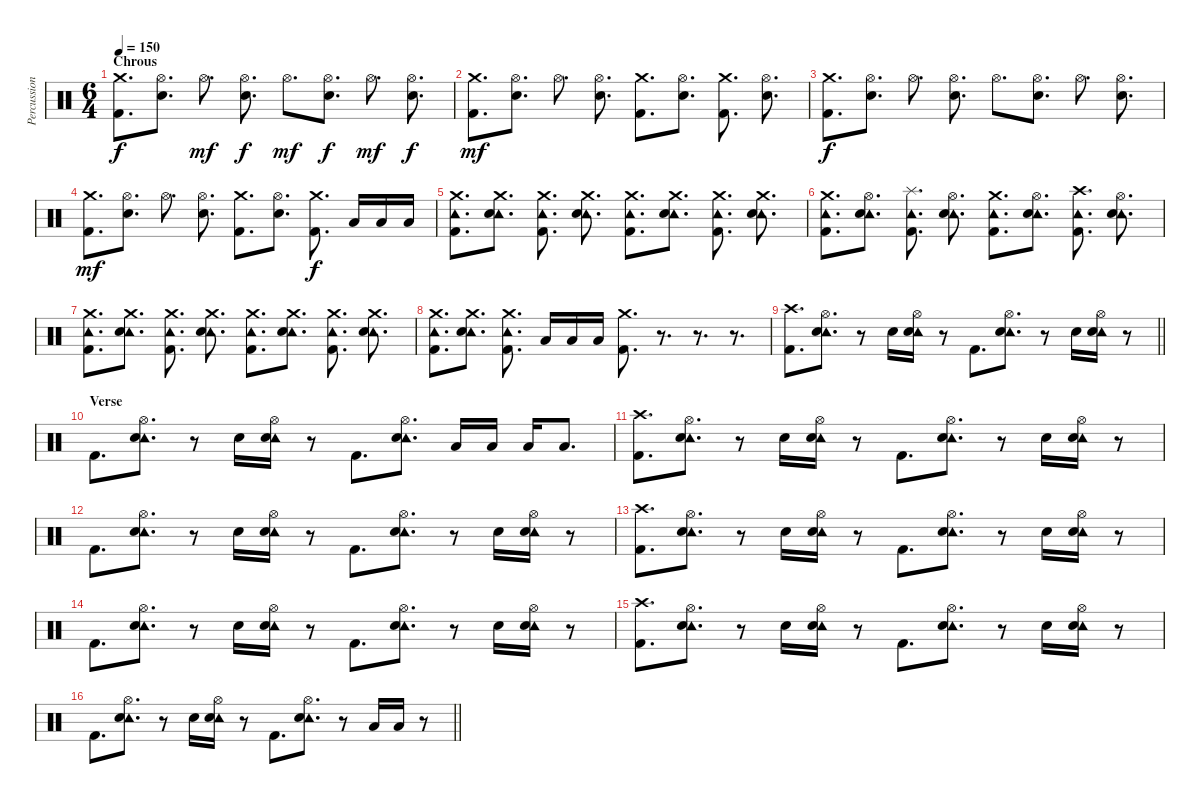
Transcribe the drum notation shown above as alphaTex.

\track ("Percussion" "Percussion") {solo instrument percussion}
\staff {score}
\articulation defaults
\ts (6 4)
\section ("" "Chrous")
\tempo 150
\clef neutral
\ks c
("Crash medium (hit)" "Kick (hit) 2").8{d dy f} ("Hi-Hat (open)" "Electric Snare (hit)").8{d} "Hi-Hat (open)".8{d dy mf} ("Hi-Hat (open)" "Electric Snare (hit)").8{d dy f} "Hi-Hat (open)".8{d dy mf} ("Hi-Hat (open)" "Electric Snare (hit)").8{d dy f} "Hi-Hat (open)".8{d dy mf} ("Hi-Hat (open)" "Electric Snare (hit)").8{d dy f} |
("Crash medium (hit)" "Kick (hit) 2").8{d dy mf} ("Hi-Hat (open)" "Electric Snare (hit)").8{d} "Hi-Hat (open)".8{d} ("Hi-Hat (open)" "Electric Snare (hit)").8{d} ("Crash medium (hit)" "Kick (hit) 2").8{d} ("Hi-Hat (open)" "Electric Snare (hit)").8{d} ("Crash medium (hit)" "Kick (hit) 2").8{d} ("Hi-Hat (open)" "Electric Snare (hit)").8{d} |
("Crash medium (hit)" "Kick (hit) 2").8{d dy f} ("Hi-Hat (open)" "Electric Snare (hit)").8{d} "Hi-Hat (open)".8{d} ("Hi-Hat (open)" "Electric Snare (hit)").8{d} "Hi-Hat (open)".8{d} ("Hi-Hat (open)" "Electric Snare (hit)").8{d} "Hi-Hat (open)".8{d} ("Hi-Hat (open)" "Electric Snare (hit)").8{d} |
("Crash medium (hit)" "Kick (hit) 2").8{d dy mf} ("Hi-Hat (open)" "Electric Snare (hit)").8{d} "Hi-Hat (open)".8{d} ("Hi-Hat (open)" "Electric Snare (hit)").8{d} ("Crash medium (hit)" "Kick (hit) 2").8{d} ("Hi-Hat (open)" "Electric Snare (hit)").8{d} ("Crash medium (hit)" "Kick (hit) 2").8{d dy f} "Low Tom (hit)".16 "Low Tom (hit)".16 "Low Floor Tom (hit)".16 |
("Tambourine (hit)" "Crash medium (hit)" "Kick (hit) 2").8{d} ("Tambourine (hit)" "Crash medium (hit)" "Electric Snare (hit)").8{d} ("Tambourine (hit)" "Crash medium (hit)" "Kick (hit) 2").8{d} ("Tambourine (hit)" "Crash medium (hit)" "Electric Snare (hit)").8{d} ("Tambourine (hit)" "Crash medium (hit)" "Kick (hit) 2").8{d} ("Tambourine (hit)" "Crash medium (hit)" "Electric Snare (hit)").8{d} ("Tambourine (hit)" "Crash medium (hit)" "Kick (hit) 2").8{d} ("Tambourine (hit)" "Crash medium (hit)" "Electric Snare (hit)").8{d} |
("Tambourine (hit)" "Crash medium (hit)" "Kick (hit) 2").8{d} ("Tambourine (hit)" "Hi-Hat (open)" "Electric Snare (hit)").8{d} ("Tambourine (hit)" "Splash (hit)" "Kick (hit) 2").8{d} ("Tambourine (hit)" "Hi-Hat (open)" "Electric Snare (hit)").8{d} ("Tambourine (hit)" "Crash medium (hit)" "Kick (hit) 2").8{d} ("Tambourine (hit)" "Hi-Hat (open)" "Electric Snare (hit)").8{d} ("Tambourine (hit)" "Crash high (hit)" "Kick (hit) 2").8{d} ("Tambourine (hit)" "Hi-Hat (open)" "Electric Snare (hit)").8{d} |
("Tambourine (hit)" "Crash medium (hit)" "Kick (hit) 2").8{d} ("Tambourine (hit)" "Crash medium (hit)" "Electric Snare (hit)").8{d} ("Tambourine (hit)" "Crash medium (hit)" "Kick (hit) 2").8{d} ("Tambourine (hit)" "Crash medium (hit)" "Electric Snare (hit)").8{d} ("Tambourine (hit)" "Crash medium (hit)" "Kick (hit) 2").8{d} ("Tambourine (hit)" "Crash medium (hit)" "Electric Snare (hit)").8{d} ("Tambourine (hit)" "Crash medium (hit)" "Kick (hit) 2").8{d} ("Tambourine (hit)" "Crash medium (hit)" "Electric Snare (hit)").8{d} |
("Tambourine (hit)" "Crash medium (hit)" "Kick (hit) 2").8{d} ("Tambourine (hit)" "Crash medium (hit)" "Electric Snare (hit)").8{d} ("Tambourine (hit)" "Crash medium (hit)" "Kick (hit) 2").8{d} "Low Tom (hit)".16 "Low Tom (hit)".16 "Low Floor Tom (hit)".16 ("Crash medium (hit)" "Kick (hit) 2").8{d} r.8{d} r.8{d} r.8{d} |
\barLineRight lightlight
("Crash high (hit)" "Kick (hit) 2").8{d} ("Tambourine (hit)" "Hi-Hat (open)" "Electric Snare (hit)").8{d} r.8 "Electric Snare (hit)".16 ("Tambourine (hit)" "Hi-Hat (open)" "Electric Snare (hit)").16 r.8 "Kick (hit) 2".8{d} ("Tambourine (hit)" "Hi-Hat (open)" "Electric Snare (hit)").8{d} r.8 "Electric Snare (hit)".16 ("Tambourine (hit)" "Hi-Hat (open)" "Electric Snare (hit)").16 r.8 |
\section ("" "Verse")
"Kick (hit) 2".8{d} ("Tambourine (hit)" "Hi-Hat (open)" "Electric Snare (hit)").8{d} r.8 "Electric Snare (hit)".16 ("Tambourine (hit)" "Hi-Hat (open)" "Electric Snare (hit)").16 r.8 "Kick (hit) 2".8{d} ("Tambourine (hit)" "Hi-Hat (open)" "Electric Snare (hit)").8{d} "Low Tom (hit)".16 "Low Tom (hit)".16 "Low Tom (hit)".16 "Low Floor Tom (hit)".8{d} |
("Crash high (hit)" "Kick (hit) 2").8{d} ("Tambourine (hit)" "Hi-Hat (open)" "Electric Snare (hit)").8{d} r.8 "Electric Snare (hit)".16 ("Tambourine (hit)" "Hi-Hat (open)" "Electric Snare (hit)").16 r.8 "Kick (hit) 2".8{d} ("Tambourine (hit)" "Hi-Hat (open)" "Electric Snare (hit)").8{d} r.8 "Electric Snare (hit)".16 ("Tambourine (hit)" "Hi-Hat (open)" "Electric Snare (hit)").16 r.8 |
"Kick (hit) 2".8{d} ("Tambourine (hit)" "Hi-Hat (open)" "Electric Snare (hit)").8{d} r.8 "Electric Snare (hit)".16 ("Tambourine (hit)" "Hi-Hat (open)" "Electric Snare (hit)").16 r.8 "Kick (hit) 2".8{d} ("Tambourine (hit)" "Hi-Hat (open)" "Electric Snare (hit)").8{d} r.8 "Electric Snare (hit)".16 ("Tambourine (hit)" "Hi-Hat (open)" "Electric Snare (hit)").16 r.8 |
("Crash high (hit)" "Kick (hit) 2").8{d} ("Tambourine (hit)" "Hi-Hat (open)" "Electric Snare (hit)").8{d} r.8 "Electric Snare (hit)".16 ("Tambourine (hit)" "Hi-Hat (open)" "Electric Snare (hit)").16 r.8 "Kick (hit) 2".8{d} ("Tambourine (hit)" "Hi-Hat (open)" "Electric Snare (hit)").8{d} r.8 "Electric Snare (hit)".16 ("Tambourine (hit)" "Hi-Hat (open)" "Electric Snare (hit)").16 r.8 |
"Kick (hit) 2".8{d} ("Tambourine (hit)" "Hi-Hat (open)" "Electric Snare (hit)").8{d} r.8 "Electric Snare (hit)".16 ("Tambourine (hit)" "Hi-Hat (open)" "Electric Snare (hit)").16 r.8 "Kick (hit) 2".8{d} ("Tambourine (hit)" "Hi-Hat (open)" "Electric Snare (hit)").8{d} r.8 "Electric Snare (hit)".16 ("Tambourine (hit)" "Hi-Hat (open)" "Electric Snare (hit)").16 r.8 |
("Crash high (hit)" "Kick (hit) 2").8{d} ("Tambourine (hit)" "Hi-Hat (open)" "Electric Snare (hit)").8{d} r.8 "Electric Snare (hit)".16 ("Tambourine (hit)" "Hi-Hat (open)" "Electric Snare (hit)").16 r.8 "Kick (hit) 2".8{d} ("Tambourine (hit)" "Hi-Hat (open)" "Electric Snare (hit)").8{d} r.8 "Electric Snare (hit)".16 ("Tambourine (hit)" "Hi-Hat (open)" "Electric Snare (hit)").16 r.8 |
\barLineRight lightlight "Kick (hit) 2".8{d}
("Tambourine (hit)" "Hi-Hat (open)" "Electric Snare (hit)").8{d} r.8 "Electric Snare (hit)".16 ("Tambourine (hit)" "Hi-Hat (open)" "Electric Snare (hit)").16 r.8 "Kick (hit) 2".8{d} ("Tambourine (hit)" "Hi-Hat (open)" "Electric Snare (hit)").8{d} r.8 "Low Tom (hit)".16 "Low Floor Tom (hit)".16 r.8
